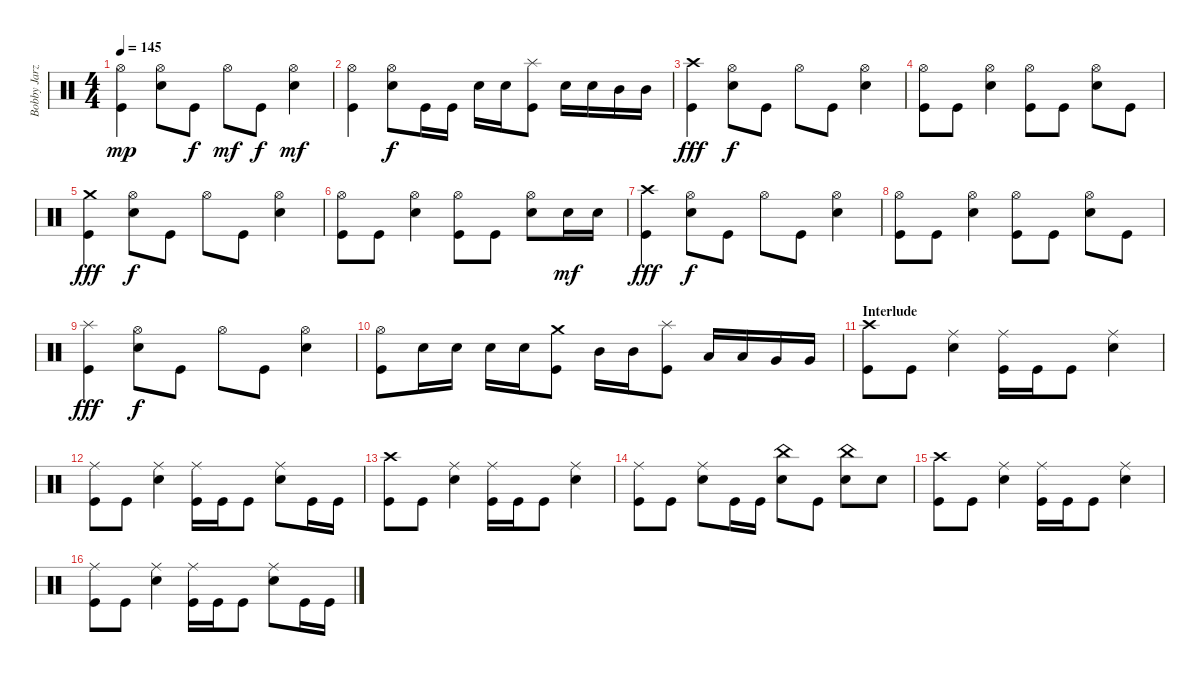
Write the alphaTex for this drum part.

\track ("Bobby Jarzombek" "Bobby Jarz") {instrument percussion}
\staff {score}
\articulation defaults
\ts (4 4)
\tempo 145
\clef neutral
\ks c
("Hi-Hat (open)" "Kick (hit)").4{dy mp} ("Hi-Hat (open)" "Electric Snare (hit)").8 "Kick (hit)".8{dy f} "Hi-Hat (open)".8{dy mf} "Kick (hit)".8{dy f} ("Hi-Hat (open)" "Electric Snare (hit)").4{dy mf} |
("Hi-Hat (open)" "Kick (hit)").4 ("Hi-Hat (open)" "Electric Snare (hit)").8{dy f} "Kick (hit)".16 "Kick (hit)".16 "Electric Snare (hit)".16 "Electric Snare (hit)".16 ("Splash (hit)" "Kick (hit)").8 "Electric Snare (hit)".16 "Electric Snare (hit)".16 "Mid Tom (hit)".16 "Mid Tom (hit)".16 |
("Crash high (hit)" "Kick (hit)").4{dy fff} ("Hi-Hat (open)" "Electric Snare (hit)").8{dy f} "Kick (hit)".8 "Hi-Hat (open)".8 "Kick (hit)".8 ("Hi-Hat (open)" "Electric Snare (hit)").4 |
("Hi-Hat (open)" "Kick (hit)").8 "Kick (hit)".8 ("Hi-Hat (open)" "Electric Snare (hit)").4 ("Hi-Hat (open)" "Kick (hit)").8 "Kick (hit)".8 ("Hi-Hat (open)" "Electric Snare (hit)").8 "Kick (hit)".8 |
("Crash medium (hit)" "Kick (hit)").4{dy fff} ("Hi-Hat (open)" "Electric Snare (hit)").8{dy f} "Kick (hit)".8 "Hi-Hat (open)".8 "Kick (hit)".8 ("Hi-Hat (open)" "Electric Snare (hit)").4 |
("Hi-Hat (open)" "Kick (hit)").8 "Kick (hit)".8 ("Hi-Hat (open)" "Electric Snare (hit)").4 ("Hi-Hat (open)" "Kick (hit)").8 "Kick (hit)".8 ("Hi-Hat (open)" "Electric Snare (hit)").8 "Electric Snare (hit)".16{dy mf} "Electric Snare (hit)".16 |
("Crash high (hit)" "Kick (hit)").4{dy fff} ("Hi-Hat (open)" "Electric Snare (hit)").8{dy f} "Kick (hit)".8 "Hi-Hat (open)".8 "Kick (hit)".8 ("Hi-Hat (open)" "Electric Snare (hit)").4 |
("Hi-Hat (open)" "Kick (hit)").8 "Kick (hit)".8 ("Hi-Hat (open)" "Electric Snare (hit)").4 ("Hi-Hat (open)" "Kick (hit)").8 "Kick (hit)".8 ("Hi-Hat (open)" "Electric Snare (hit)").8 "Kick (hit)".8 |
("Splash (hit)" "Kick (hit)").4{dy fff} ("Hi-Hat (open)" "Electric Snare (hit)").8{dy f} "Kick (hit)".8 "Hi-Hat (open)".8 "Kick (hit)".8 ("Hi-Hat (open)" "Electric Snare (hit)").4 |
("Hi-Hat (open)" "Kick (hit)").8 "Electric Snare (hit)".16 "Electric Snare (hit)".16 "Electric Snare (hit)".16 "Electric Snare (hit)".16 ("Crash medium (hit)" "Kick (hit)").8 "Mid Tom (hit)".16 "Mid Tom (hit)".16 ("Splash (hit)" "Kick (hit)").8 "Low Tom (hit)".16 "Low Tom (hit)".16 "Very Low Tom (hit)".16 "Very Low Tom (hit)".16 |
\section ("" "Interlude")
("Crash high (hit)" "Kick (hit)").8 "Kick (hit)".8 ("Ride (middle)" "Electric Snare (hit)").4 ("Ride (middle)" "Kick (hit)").16 "Kick (hit)".16 "Kick (hit)".8 ("Ride (middle)" "Electric Snare (hit)").4 |
("Ride (middle)" "Kick (hit)").8 "Kick (hit)".8 ("Ride (middle)" "Electric Snare (hit)").4 ("Ride (middle)" "Kick (hit)").16 "Kick (hit)".16 "Kick (hit)".8 ("Ride (middle)" "Electric Snare (hit)").8 "Kick (hit)".16 "Kick (hit)".16 |
("Crash high (hit)" "Kick (hit)").8 "Kick (hit)".8 ("Ride (middle)" "Electric Snare (hit)").4 ("Ride (middle)" "Kick (hit)").16 "Kick (hit)".16 "Kick (hit)".8 ("Ride (middle)" "Electric Snare (hit)").4 |
("Ride (middle)" "Kick (hit)").8 "Kick (hit)".8 ("Ride (middle)" "Electric Snare (hit)").8 "Kick (hit)".16 "Kick (hit)".16 ("China (hit)" "Electric Snare (hit)").8 "Kick (hit)".8 ("China (hit)" "Electric Snare (hit)").8 "Electric Snare (hit)".8 |
("Crash high (hit)" "Kick (hit)").8 "Kick (hit)".8 ("Ride (middle)" "Electric Snare (hit)").4 ("Ride (middle)" "Kick (hit)").16 "Kick (hit)".16 "Kick (hit)".8 ("Ride (middle)" "Electric Snare (hit)").4 |
("Ride (middle)" "Kick (hit)").8 "Kick (hit)".8 ("Ride (middle)" "Electric Snare (hit)").4 ("Ride (middle)" "Kick (hit)").16 "Kick (hit)".16 "Kick (hit)".8 ("Ride (middle)" "Electric Snare (hit)").8 "Kick (hit)".16 "Kick (hit)".16
